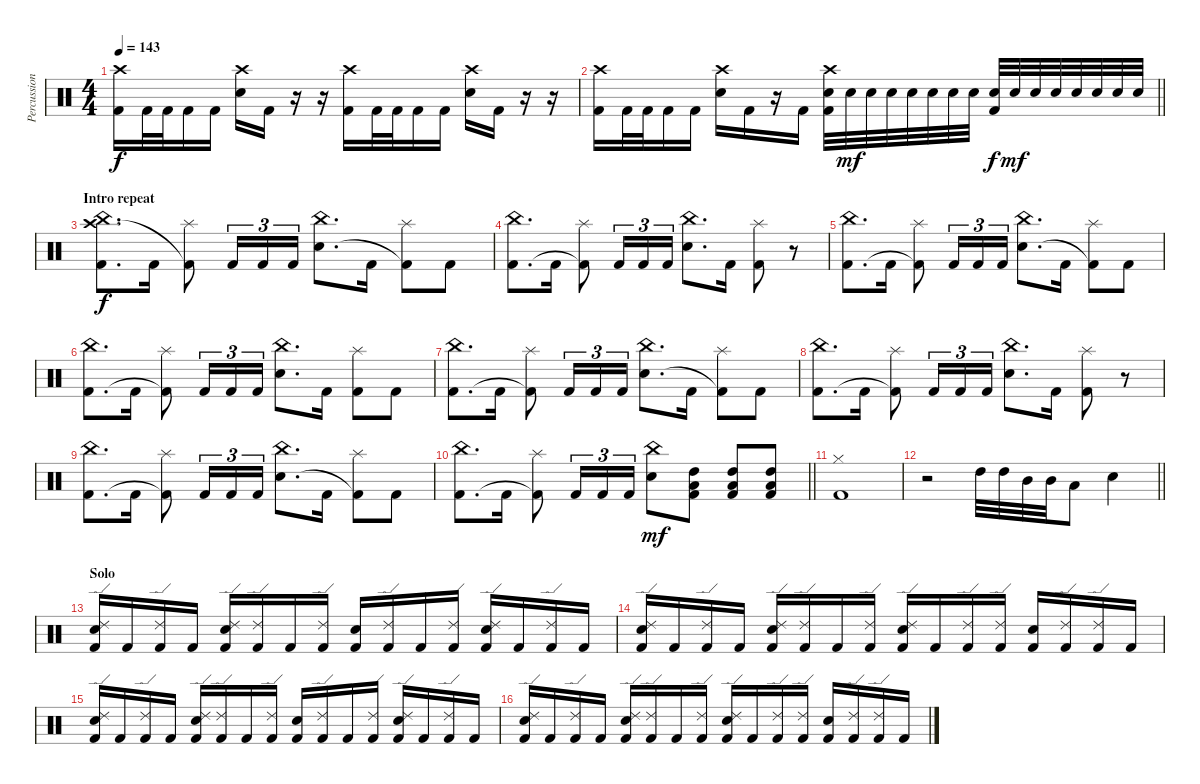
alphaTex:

\track ("Percussion" "Percussion") {instrument percussion}
\staff {score}
\articulation defaults
\ts (4 4)
\tempo 143
\clef neutral
\ks c
("Crash high (hit)" "Kick (hit) 2").16{dy f} "Kick (hit) 2".32 "Kick (hit) 2".32 "Kick (hit) 2".16 "Kick (hit) 2".16 ("Crash high (hit)" "Electric Snare (hit)").16 "Kick (hit) 2".16 r.16 r.16 ("Crash high (hit)" "Kick (hit) 2").16 "Kick (hit) 2".32 "Kick (hit) 2".32 "Kick (hit) 2".16 "Kick (hit) 2".16 ("Crash high (hit)" "Electric Snare (hit)").16 "Kick (hit) 2".16 r.16 r.16 |
\barLineRight lightlight
("Crash high (hit)" "Kick (hit) 2").16 "Kick (hit) 2".32 "Kick (hit) 2".32 "Kick (hit) 2".16 "Kick (hit) 2".16 ("Crash high (hit)" "Electric Snare (hit)").16 "Kick (hit) 2".16 r.16 "Kick (hit) 2".16 ("Crash high (hit)" "Electric Snare (hit)" "Kick (hit) 2").32 "Electric Snare (hit)".32{dy mf} "Electric Snare (hit)".32 "Electric Snare (hit)".32 "Electric Snare (hit)".32 "Electric Snare (hit)".32 "Electric Snare (hit)".32 "Electric Snare (hit)".32 ("Electric Snare (hit)" "Kick (hit) 2").32{dy f} "Electric Snare (hit)".32{dy mf} "Electric Snare (hit)".32 "Electric Snare (hit)".32 "Electric Snare (hit)".32 "Electric Snare (hit)".32 "Electric Snare (hit)".32 "Electric Snare (hit)".32 |
\section ("" "Intro repeat")
("China (hit)" "Crash high (hit)" "Kick (hit) 2").8{d dy f} "Kick (hit) 2".16 ("Splash (hit)" "Kick (hit) 2"{t}).8 "Kick (hit) 2".16{tu (3 2)} "Kick (hit) 2".16{tu (3 2)} "Kick (hit) 2".16{tu (3 2)} ("China (hit)" "Electric Snare (hit)").8{d} "Kick (hit) 2".16 ("Splash (hit)" "Kick (hit) 2"{t}).8 "Kick (hit) 2".8 |
("China (hit)" "Kick (hit) 2").8{d} "Kick (hit) 2".16 ("Splash (hit)" "Kick (hit) 2"{t}).8 "Kick (hit) 2".16{tu (3 2)} "Kick (hit) 2".16{tu (3 2)} "Kick (hit) 2".16{tu (3 2)} ("China (hit)" "Electric Snare (hit)").8{d} "Kick (hit) 2".16 ("Splash (hit)" "Kick (hit) 2").8 r.8 |
("China (hit)" "Kick (hit) 2").8{d} "Kick (hit) 2".16 ("Splash (hit)" "Kick (hit) 2"{t}).8 "Kick (hit) 2".16{tu (3 2)} "Kick (hit) 2".16{tu (3 2)} "Kick (hit) 2".16{tu (3 2)} ("China (hit)" "Electric Snare (hit)").8{d} "Kick (hit) 2".16 ("Splash (hit)" "Kick (hit) 2"{t}).8 "Kick (hit) 2".8 |
("China (hit)" "Kick (hit) 2").8{d} "Kick (hit) 2".16 ("Splash (hit)" "Kick (hit) 2"{t}).8 "Kick (hit) 2".16{tu (3 2)} "Kick (hit) 2".16{tu (3 2)} "Kick (hit) 2".16{tu (3 2)} ("China (hit)" "Electric Snare (hit)").8{d} "Kick (hit) 2".16 ("Splash (hit)" "Kick (hit) 2").8 "Kick (hit) 2".8 |
("China (hit)" "Kick (hit) 2").8{d} "Kick (hit) 2".16 ("Splash (hit)" "Kick (hit) 2"{t}).8 "Kick (hit) 2".16{tu (3 2)} "Kick (hit) 2".16{tu (3 2)} "Kick (hit) 2".16{tu (3 2)} ("China (hit)" "Electric Snare (hit)").8{d} "Kick (hit) 2".16 ("Splash (hit)" "Kick (hit) 2"{t}).8 "Kick (hit) 2".8 |
("China (hit)" "Kick (hit) 2").8{d} "Kick (hit) 2".16 ("Splash (hit)" "Kick (hit) 2"{t}).8 "Kick (hit) 2".16{tu (3 2)} "Kick (hit) 2".16{tu (3 2)} "Kick (hit) 2".16{tu (3 2)} ("China (hit)" "Electric Snare (hit)").8{d} "Kick (hit) 2".16 ("Splash (hit)" "Kick (hit) 2").8 r.8 |
("China (hit)" "Kick (hit) 2").8{d} "Kick (hit) 2".16 ("Splash (hit)" "Kick (hit) 2"{t}).8 "Kick (hit) 2".16{tu (3 2)} "Kick (hit) 2".16{tu (3 2)} "Kick (hit) 2".16{tu (3 2)} ("China (hit)" "Electric Snare (hit)").8{d} "Kick (hit) 2".16 ("Splash (hit)" "Kick (hit) 2"{t}).8 "Kick (hit) 2".8 |
\barLineRight lightlight
("China (hit)" "Kick (hit) 2").8{d} "Kick (hit) 2".16 ("Splash (hit)" "Kick (hit) 2"{t}).8 "Kick (hit) 2".16{tu (3 2)} "Kick (hit) 2".16{tu (3 2)} "Kick (hit) 2".16{tu (3 2)} ("China (hit)" "Electric Snare (hit)").8{dy mf} ("High Tom (hit)" "Low Tom (hit)" "Kick (hit) 2").8 ("High Tom (hit)" "Low Tom (hit)" "Kick (hit) 2").8 ("High Tom (hit)" "Low Tom (hit)" "Kick (hit) 2").8 |
("Hi-Hat (closed)" "Kick (hit) 2").1 |
\barLineRight lightlight
r.2 "High Tom (hit)".32 "High Tom (hit)".32 "Mid Tom (hit)".32 "Mid Tom (hit)".32 "Low Tom (hit)".8 "Electric Snare (hit)".4 |
\section ("" "Solo")
("Ride (edge) 2" "Electric Snare (hit)" "Kick (hit) 2").16 "Kick (hit) 2".16 ("Ride (edge) 2" "Kick (hit) 2").16 "Kick (hit) 2".16 ("Ride (edge) 2" "Electric Snare (hit)" "Kick (hit) 2").16 ("Ride (edge) 2" "Kick (hit) 2").16 "Kick (hit) 2".16 ("Ride (edge) 2" "Kick (hit) 2").16 ("Electric Snare (hit)" "Kick (hit) 2").16 ("Ride (edge) 2" "Kick (hit) 2").16 "Kick (hit) 2".16 ("Ride (edge) 2" "Kick (hit) 2").16 ("Ride (edge) 2" "Electric Snare (hit)" "Kick (hit) 2").16 "Kick (hit) 2".16 ("Ride (edge) 2" "Kick (hit) 2").16 "Kick (hit) 2".16 |
("Ride (edge) 2" "Electric Snare (hit)" "Kick (hit) 2").16 "Kick (hit) 2".16 ("Ride (edge) 2" "Kick (hit) 2").16 "Kick (hit) 2".16 ("Ride (edge) 2" "Electric Snare (hit)" "Kick (hit) 2").16 ("Ride (edge) 2" "Kick (hit) 2").16 "Kick (hit) 2".16 ("Ride (edge) 2" "Kick (hit) 2").16 ("Ride (edge) 2" "Electric Snare (hit)" "Kick (hit) 2").16 "Kick (hit) 2".16 ("Ride (edge) 2" "Kick (hit) 2").16 ("Ride (edge) 2" "Kick (hit) 2").16 ("Electric Snare (hit)" "Kick (hit) 2").16 ("Ride (edge) 2" "Kick (hit) 2").16 ("Ride (edge) 2" "Kick (hit) 2").16 "Kick (hit) 2".16 |
("Ride (edge) 2" "Electric Snare (hit)" "Kick (hit) 2").16 "Kick (hit) 2".16 ("Ride (edge) 2" "Kick (hit) 2").16 "Kick (hit) 2".16 ("Ride (edge) 2" "Electric Snare (hit)" "Kick (hit) 2").16 ("Ride (edge) 2" "Kick (hit) 2").16 "Kick (hit) 2".16 ("Ride (edge) 2" "Kick (hit) 2").16 ("Electric Snare (hit)" "Kick (hit) 2").16 ("Ride (edge) 2" "Kick (hit) 2").16 "Kick (hit) 2".16 ("Ride (edge) 2" "Kick (hit) 2").16 ("Ride (edge) 2" "Electric Snare (hit)" "Kick (hit) 2").16 "Kick (hit) 2".16 ("Ride (edge) 2" "Kick (hit) 2").16 "Kick (hit) 2".16 |
("Ride (edge) 2" "Electric Snare (hit)" "Kick (hit) 2").16 "Kick (hit) 2".16 ("Ride (edge) 2" "Kick (hit) 2").16 "Kick (hit) 2".16 ("Ride (edge) 2" "Electric Snare (hit)" "Kick (hit) 2").16 ("Ride (edge) 2" "Kick (hit) 2").16 "Kick (hit) 2".16 ("Ride (edge) 2" "Kick (hit) 2").16 ("Ride (edge) 2" "Electric Snare (hit)" "Kick (hit) 2").16 "Kick (hit) 2".16 ("Ride (edge) 2" "Kick (hit) 2").16 ("Ride (edge) 2" "Kick (hit) 2").16 ("Electric Snare (hit)" "Kick (hit) 2").16 ("Ride (edge) 2" "Kick (hit) 2").16 ("Ride (edge) 2" "Kick (hit) 2").16 "Kick (hit) 2".16
